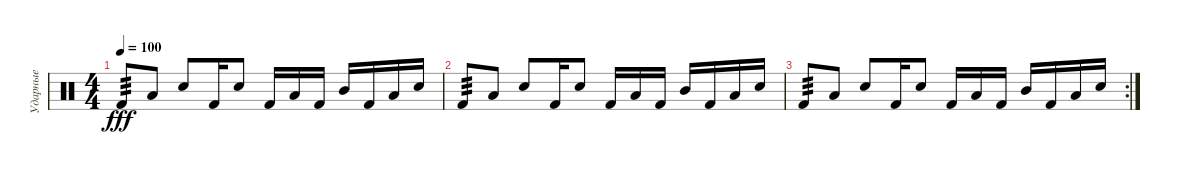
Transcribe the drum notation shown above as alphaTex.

\track ("Ударные" "Ударные") {instrument percussion}
\staff {score}
\articulation defaults
\ts (4 4)
\tempo 100
\clef neutral
\ks c "Kick (hit) 2".8{tp 3 dy fff} "Low Floor Tom (hit)".8 "Snare (hit) 2".8 "Kick (hit) 2".16 "Snare (hit) 2".8 "Kick (hit) 2".16 "Low Tom (hit)".16 "Kick (hit) 2".16 "Mid Tom (hit)".16 "Kick (hit) 2".16 "Low Tom (hit)".16 "Snare (hit) 2".16
|
"Kick (hit) 2".8{tp 3} "Low Floor Tom (hit)".8 "Snare (hit) 2".8 "Kick (hit) 2".16 "Snare (hit) 2".8 "Kick (hit) 2".16 "Low Tom (hit)".16 "Kick (hit) 2".16 "Mid Tom (hit)".16 "Kick (hit) 2".16 "Low Tom (hit)".16 "Snare (hit) 2".16 |
\rc 2 "Kick (hit) 2".8{tp 3} "Low Floor Tom (hit)".8 "Snare (hit) 2".8 "Kick (hit) 2".16 "Snare (hit) 2".8 "Kick (hit) 2".16 "Low Tom (hit)".16 "Kick (hit) 2".16 "Mid Tom (hit)".16 "Kick (hit) 2".16 "Low Tom (hit)".16 "Snare (hit) 2".16
